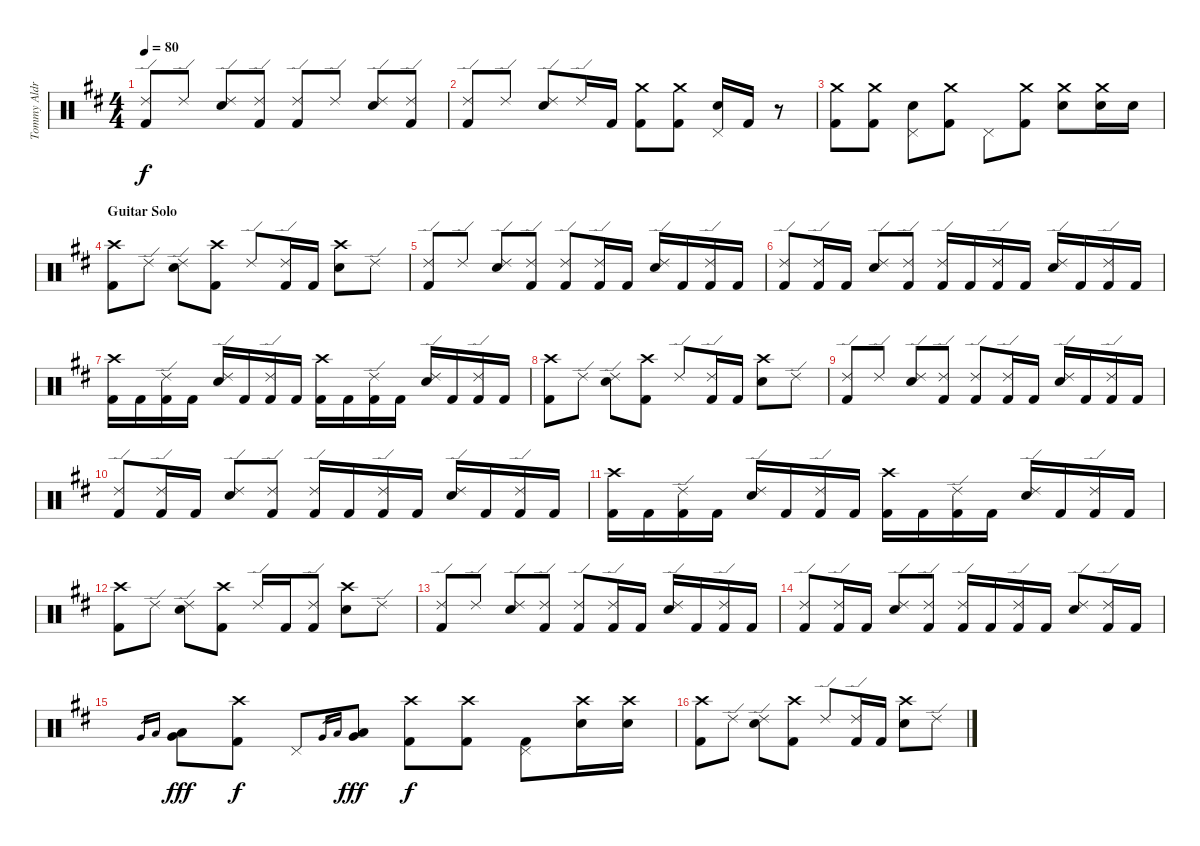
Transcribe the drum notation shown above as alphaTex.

\track ("Tommy Aldridge" "Tommy Aldr") {instrument percussion}
\staff {score}
\articulation defaults
\ts (4 4)
\tempo 80
\clef neutral
\ks bminor
("Ride (edge) 2" "Kick (hit) 2").8{dy f} "Ride (edge) 2".8 ("Ride (edge) 2" "Snare (hit) 2").8 ("Ride (edge) 2" "Kick (hit) 2").8 ("Ride (edge) 2" "Kick (hit) 2").8 "Ride (edge) 2".8 ("Ride (edge) 2" "Snare (hit) 2").8 ("Ride (edge) 2" "Kick (hit) 2").8 |
("Ride (edge) 2" "Kick (hit) 2").8 "Ride (edge) 2".8 ("Ride (edge) 2" "Snare (hit) 2").8 "Ride (edge) 2".16 "Kick (hit) 2".16 ("Crash medium (hit)" "Kick (hit) 2").8 ("Crash medium (hit)" "Kick (hit) 2").8 ("Pedal Hi-Hat (hit)" "Snare (hit) 2").16 "Kick (hit) 2".16 r.8 |
("Crash medium (hit)" "Kick (hit) 2").8 ("Crash medium (hit)" "Kick (hit) 2").8 ("Pedal Hi-Hat (hit)" "Snare (hit) 2").8 ("Crash medium (hit)" "Kick (hit) 2").8 "Pedal Hi-Hat (hit)".8 ("Crash medium (hit)" "Kick (hit) 2").8 ("Crash medium (hit)" "Snare (hit) 2").8 ("Crash medium (hit)" "Snare (hit) 2").16 "Snare (hit) 2".16 |
\section ("" "Guitar Solo")
("Crash high (hit)" "Kick (hit) 2").8 "Ride (edge) 2".8 ("Ride (edge) 2" "Snare (hit) 2").8 ("Crash high (hit)" "Kick (hit) 2").8 "Ride (edge) 2".8 ("Ride (edge) 2" "Kick (hit) 2").16 "Kick (hit) 2".16 ("Crash high (hit)" "Snare (hit) 2").8 "Ride (edge) 2".8 |
("Ride (edge) 2" "Kick (hit) 2").8 "Ride (edge) 2".8 ("Ride (edge) 2" "Snare (hit) 2").8 ("Ride (edge) 2" "Kick (hit) 2").8 ("Ride (edge) 2" "Kick (hit) 2").8 ("Ride (edge) 2" "Kick (hit) 2").16 "Kick (hit) 2".16 ("Ride (edge) 2" "Snare (hit) 2").16 "Kick (hit) 2".16 ("Ride (edge) 2" "Kick (hit) 2").16 "Kick (hit) 2".16 |
("Ride (edge) 2" "Kick (hit) 2").8 ("Ride (edge) 2" "Kick (hit) 2").16 "Kick (hit) 2".16 ("Ride (edge) 2" "Snare (hit) 2").8 ("Ride (edge) 2" "Kick (hit) 2").8 ("Ride (edge) 2" "Kick (hit) 2").16 "Kick (hit) 2".16 ("Ride (edge) 2" "Kick (hit) 2").16 "Kick (hit) 2".16 ("Ride (edge) 2" "Snare (hit) 2").16 "Kick (hit) 2".16 ("Ride (edge) 2" "Kick (hit) 2").16 "Kick (hit) 2".16 |
("Crash high (hit)" "Kick (hit) 2").16 "Kick (hit) 2".16 ("Ride (edge) 2" "Kick (hit) 2").16 "Kick (hit) 2".16 ("Ride (edge) 2" "Snare (hit) 2").16 "Kick (hit) 2".16 ("Ride (edge) 2" "Kick (hit) 2").16 "Kick (hit) 2".16 ("Crash high (hit)" "Kick (hit) 2").16 "Kick (hit) 2".16 ("Ride (edge) 2" "Kick (hit) 2").16 "Kick (hit) 2".16 ("Ride (edge) 2" "Snare (hit) 2").16 "Kick (hit) 2".16 ("Ride (edge) 2" "Kick (hit) 2").16 "Kick (hit) 2".16 |
("Crash high (hit)" "Kick (hit) 2").8 "Ride (edge) 2".8 ("Ride (edge) 2" "Snare (hit) 2").8 ("Crash high (hit)" "Kick (hit) 2").8 "Ride (edge) 2".8 ("Ride (edge) 2" "Kick (hit) 2").16 "Kick (hit) 2".16 ("Crash high (hit)" "Snare (hit) 2").8 "Ride (edge) 2".8 |
("Ride (edge) 2" "Kick (hit) 2").8 "Ride (edge) 2".8 ("Ride (edge) 2" "Snare (hit) 2").8 ("Ride (edge) 2" "Kick (hit) 2").8 ("Ride (edge) 2" "Kick (hit) 2").8 ("Ride (edge) 2" "Kick (hit) 2").16 "Kick (hit) 2".16 ("Ride (edge) 2" "Snare (hit) 2").16 "Kick (hit) 2".16 ("Ride (edge) 2" "Kick (hit) 2").16 "Kick (hit) 2".16 |
("Ride (edge) 2" "Kick (hit) 2").8 ("Ride (edge) 2" "Kick (hit) 2").16 "Kick (hit) 2".16 ("Ride (edge) 2" "Snare (hit) 2").8 ("Ride (edge) 2" "Kick (hit) 2").8 ("Ride (edge) 2" "Kick (hit) 2").16 "Kick (hit) 2".16 ("Ride (edge) 2" "Kick (hit) 2").16 "Kick (hit) 2".16 ("Ride (edge) 2" "Snare (hit) 2").16 "Kick (hit) 2".16 ("Ride (edge) 2" "Kick (hit) 2").16 "Kick (hit) 2".16 |
("Crash high (hit)" "Kick (hit) 2").16 "Kick (hit) 2".16 ("Ride (edge) 2" "Kick (hit) 2").16 "Kick (hit) 2".16 ("Ride (edge) 2" "Snare (hit) 2").16 "Kick (hit) 2".16 ("Ride (edge) 2" "Kick (hit) 2").16 "Kick (hit) 2".16 ("Crash high (hit)" "Kick (hit) 2").16 "Kick (hit) 2".16 ("Ride (edge) 2" "Kick (hit) 2").16 "Kick (hit) 2".16 ("Ride (edge) 2" "Snare (hit) 2").16 "Kick (hit) 2".16 ("Ride (edge) 2" "Kick (hit) 2").16 "Kick (hit) 2".16 |
("Crash high (hit)" "Kick (hit) 2").8 "Ride (edge) 2".8 ("Ride (edge) 2" "Snare (hit) 2").8 ("Crash high (hit)" "Kick (hit) 2").8 "Ride (edge) 2".16 "Kick (hit) 2".16 ("Ride (edge) 2" "Kick (hit) 2").8 ("Crash high (hit)" "Snare (hit) 2").8 "Ride (edge) 2".8 |
("Ride (edge) 2" "Kick (hit) 2").8 "Ride (edge) 2".8 ("Ride (edge) 2" "Snare (hit) 2").8 ("Ride (edge) 2" "Kick (hit) 2").8 ("Ride (edge) 2" "Kick (hit) 2").8 ("Ride (edge) 2" "Kick (hit) 2").16 "Kick (hit) 2".16 ("Ride (edge) 2" "Snare (hit) 2").16 "Kick (hit) 2".16 ("Ride (edge) 2" "Kick (hit) 2").16 "Kick (hit) 2".16 |
("Ride (edge) 2" "Kick (hit) 2").8 ("Ride (edge) 2" "Kick (hit) 2").16 "Kick (hit) 2".16 ("Ride (edge) 2" "Snare (hit) 2").8 ("Ride (edge) 2" "Kick (hit) 2").8 ("Ride (edge) 2" "Kick (hit) 2").16 "Kick (hit) 2".16 ("Ride (edge) 2" "Kick (hit) 2").16 "Kick (hit) 2".16 ("Ride (edge) 2" "Snare (hit) 2").8 ("Ride (edge) 2" "Kick (hit) 2").16 "Kick (hit) 2".16 |
"Very Low Tom (hit)".16{gr} "Low Tom (hit)".16{gr} ("Very Low Tom (hit)" "Low Tom (hit)").8{dy fff} ("Crash high (hit)" "Kick (hit) 2").8{dy f} "Pedal Hi-Hat (hit)".8 "Very Low Tom (hit)".16{gr} "Low Tom (hit)".16{gr} ("Very Low Tom (hit)" "Low Tom (hit)").8{dy fff} ("Crash high (hit)" "Kick (hit) 2").8{dy f} ("Crash high (hit)" "Kick (hit) 2").8 ("Pedal Hi-Hat (hit)" "Kick (hit) 2").8 ("Crash high (hit)" "Snare (hit) 2").16 ("Crash high (hit)" "Snare (hit) 2").16 |
("Crash high (hit)" "Kick (hit) 2").8 "Ride (edge) 2".8 ("Ride (edge) 2" "Snare (hit) 2").8 ("Crash high (hit)" "Kick (hit) 2").8 "Ride (edge) 2".8 ("Ride (edge) 2" "Kick (hit) 2").16 "Kick (hit) 2".16 ("Crash high (hit)" "Snare (hit) 2").8 "Ride (edge) 2".8
